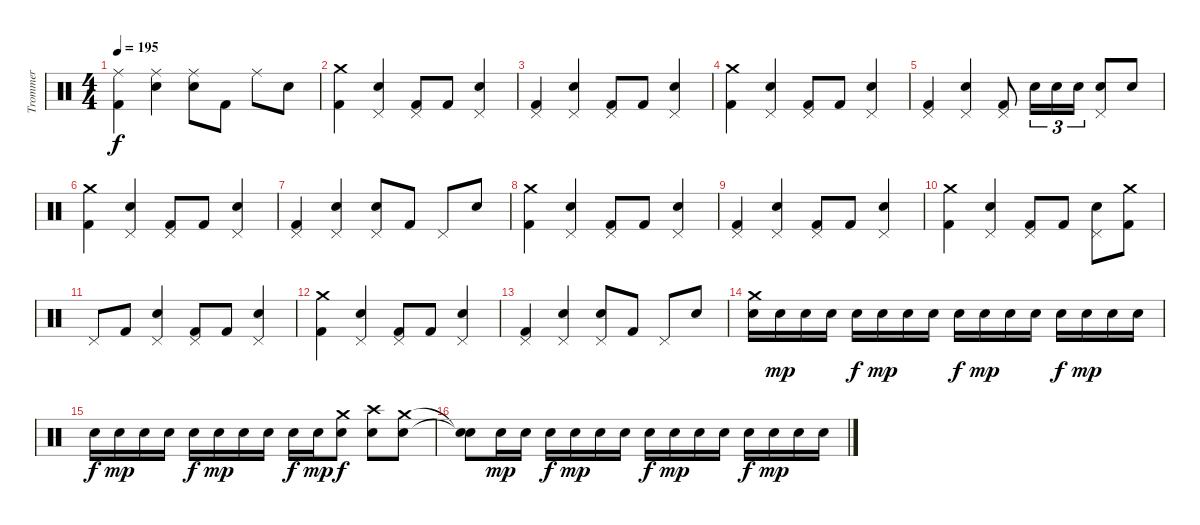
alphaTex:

\track ("Trommer" "Trommer") {instrument percussion}
\staff {score}
\articulation defaults
\ts (4 4)
\tempo 195
\clef neutral
\ks c
("Ride (middle)" "Kick (hit) 2").4{dy f} ("Ride (middle)" "Snare (hit) 2").4 ("Ride (middle)" "Snare (hit) 2").8 "Kick (hit) 2".8 "Ride (middle)".8 "Snare (hit) 2".8 |
("Kick (hit) 2" "Crash medium (hit)").4 ("Pedal Hi-Hat (hit)" "Snare (hit) 2").4 ("Pedal Hi-Hat (hit)" "Kick (hit) 2").8 "Kick (hit) 2".8 ("Pedal Hi-Hat (hit)" "Snare (hit) 2").4 |
("Pedal Hi-Hat (hit)" "Kick (hit) 2").4 ("Pedal Hi-Hat (hit)" "Snare (hit) 2").4 ("Pedal Hi-Hat (hit)" "Kick (hit) 2").8 "Kick (hit) 2".8 ("Pedal Hi-Hat (hit)" "Snare (hit) 2").4 |
("Kick (hit) 2" "Crash medium (hit)").4 ("Pedal Hi-Hat (hit)" "Snare (hit) 2").4 ("Pedal Hi-Hat (hit)" "Kick (hit) 2").8 "Kick (hit) 2".8 ("Pedal Hi-Hat (hit)" "Snare (hit) 2").4 |
("Pedal Hi-Hat (hit)" "Kick (hit) 2").4 ("Pedal Hi-Hat (hit)" "Snare (hit) 2").4 ("Pedal Hi-Hat (hit)" "Kick (hit) 2").8 "Snare (hit) 2".16{tu (3 2)} "Snare (hit) 2".16{tu (3 2)} "Snare (hit) 2".16{tu (3 2)} ("Pedal Hi-Hat (hit)" "Snare (hit) 2").8 "Snare (hit) 2".8 |
("Kick (hit) 2" "Crash medium (hit)").4 ("Pedal Hi-Hat (hit)" "Snare (hit) 2").4 ("Pedal Hi-Hat (hit)" "Kick (hit) 2").8 "Kick (hit) 2".8 ("Pedal Hi-Hat (hit)" "Snare (hit) 2").4 |
("Pedal Hi-Hat (hit)" "Kick (hit) 2").4 ("Pedal Hi-Hat (hit)" "Snare (hit) 2").4 ("Pedal Hi-Hat (hit)" "Snare (hit) 2").8 "Kick (hit) 2".8 "Pedal Hi-Hat (hit)".8 "Snare (hit) 2".8 |
("Kick (hit) 2" "Crash medium (hit)").4 ("Pedal Hi-Hat (hit)" "Snare (hit) 2").4 ("Pedal Hi-Hat (hit)" "Kick (hit) 2").8 "Kick (hit) 2".8 ("Pedal Hi-Hat (hit)" "Snare (hit) 2").4 |
("Pedal Hi-Hat (hit)" "Kick (hit) 2").4 ("Pedal Hi-Hat (hit)" "Snare (hit) 2").4 ("Pedal Hi-Hat (hit)" "Kick (hit) 2").8 "Kick (hit) 2".8 ("Pedal Hi-Hat (hit)" "Snare (hit) 2").4 |
("Kick (hit) 2" "Crash medium (hit)").4 ("Snare (hit) 2" "Pedal Hi-Hat (hit)").4 ("Kick (hit) 2" "Pedal Hi-Hat (hit)").8 "Kick (hit) 2".8 ("Snare (hit) 2" "Pedal Hi-Hat (hit)").8 ("Kick (hit) 2" "Crash medium (hit)").8 |
"Pedal Hi-Hat (hit)".8 "Kick (hit) 2".8 ("Pedal Hi-Hat (hit)" "Snare (hit) 2").4 ("Kick (hit) 2" "Pedal Hi-Hat (hit)").8 "Kick (hit) 2".8 ("Snare (hit) 2" "Pedal Hi-Hat (hit)").4 |
("Kick (hit) 2" "Crash medium (hit)").4 ("Pedal Hi-Hat (hit)" "Snare (hit) 2").4 ("Kick (hit) 2" "Pedal Hi-Hat (hit)").8 "Kick (hit) 2".8 ("Snare (hit) 2" "Pedal Hi-Hat (hit)").4 |
("Pedal Hi-Hat (hit)" "Kick (hit) 2").4 ("Pedal Hi-Hat (hit)" "Snare (hit) 2").4 ("Pedal Hi-Hat (hit)" "Snare (hit) 2").8 "Kick (hit) 2".8 "Pedal Hi-Hat (hit)".8 "Snare (hit) 2".8 |
("Crash medium (hit)" "Snare (hit) 2").16 "Snare (hit) 2".16{dy mp} "Snare (hit) 2".16 "Snare (hit) 2".16 "Snare (hit) 2".16{dy f} "Snare (hit) 2".16{dy mp} "Snare (hit) 2".16 "Snare (hit) 2".16 "Snare (hit) 2".16{dy f} "Snare (hit) 2".16{dy mp} "Snare (hit) 2".16 "Snare (hit) 2".16 "Snare (hit) 2".16{dy f} "Snare (hit) 2".16{dy mp} "Snare (hit) 2".16 "Snare (hit) 2".16 |
"Snare (hit) 2".16{dy f} "Snare (hit) 2".16{dy mp} "Snare (hit) 2".16 "Snare (hit) 2".16 "Snare (hit) 2".16{dy f} "Snare (hit) 2".16{dy mp} "Snare (hit) 2".16 "Snare (hit) 2".16 "Snare (hit) 2".16{dy f} "Snare (hit) 2".16{dy mp} ("Crash medium (hit)" "Snare (hit) 2").8{dy f} ("Crash high (hit)" "Snare (hit) 2").8 ("Snare (hit) 2" "Crash medium (hit)").8 |
("Snare (hit)"{t} "Snare (hit)"{t}).8 "Snare (hit) 2".16{dy mp} "Snare (hit) 2".16 "Snare (hit) 2".16{dy f} "Snare (hit) 2".16{dy mp} "Snare (hit) 2".16 "Snare (hit) 2".16 "Snare (hit) 2".16{dy f} "Snare (hit) 2".16{dy mp} "Snare (hit) 2".16 "Snare (hit) 2".16 "Snare (hit) 2".16{dy f} "Snare (hit) 2".16{dy mp} "Snare (hit) 2".16 "Snare (hit) 2".16
